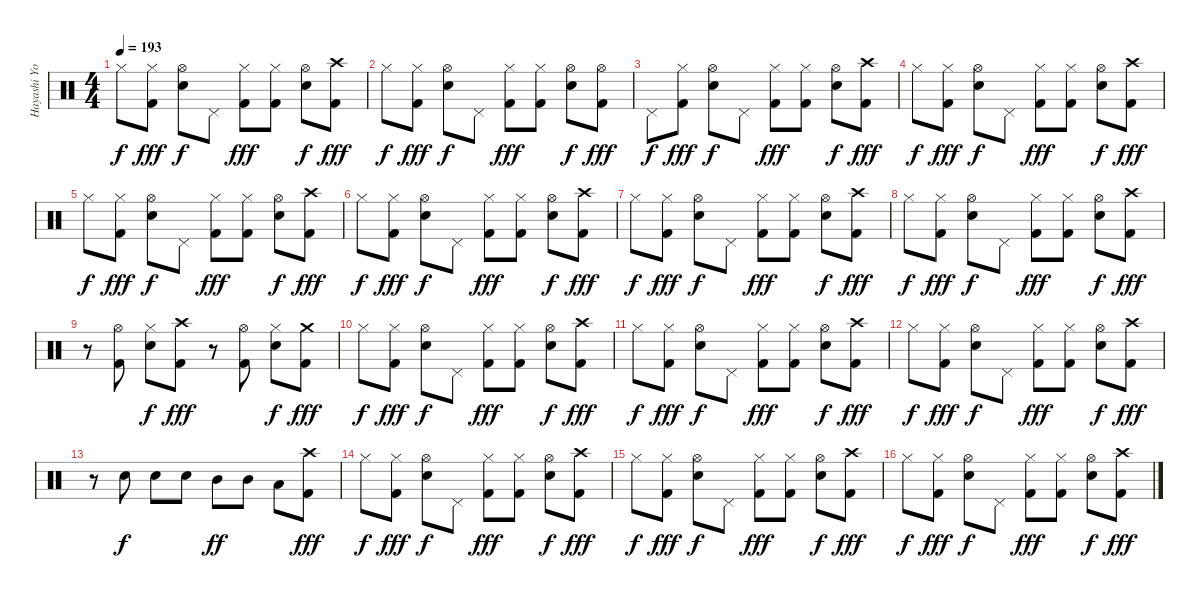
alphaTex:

\track ("Hayashi Yoshiki(Yoshiki)" "Hayashi Yo") {instrument percussion}
\staff {score}
\articulation defaults
\ts (4 4)
\tempo 193
\clef neutral
\ks c "Hi-Hat (closed)".8{dy f}
("Hi-Hat (closed)" "Kick (hit) 2").8{dy fff} ("Hi-Hat (open)" "Electric Snare (hit)").8{dy f} "Pedal Hi-Hat (hit)".8 ("Hi-Hat (closed)" "Kick (hit) 2").8{dy fff} ("Hi-Hat (closed)" "Kick (hit) 2").8 ("Hi-Hat (open)" "Electric Snare (hit)").8{dy f} ("Crash high (hit)" "Kick (hit) 2").8{dy fff} |
"Hi-Hat (closed)".8{dy f} ("Hi-Hat (closed)" "Kick (hit) 2").8{dy fff} ("Hi-Hat (open)" "Electric Snare (hit)").8{dy f} "Pedal Hi-Hat (hit)".8 ("Hi-Hat (closed)" "Kick (hit) 2").8{dy fff} ("Hi-Hat (closed)" "Kick (hit) 2").8 ("Hi-Hat (open)" "Electric Snare (hit)").8{dy f} ("Hi-Hat (open)" "Kick (hit) 2").8{dy fff} |
"Pedal Hi-Hat (hit)".8{dy f} ("Hi-Hat (closed)" "Kick (hit) 2").8{dy fff} ("Hi-Hat (open)" "Electric Snare (hit)").8{dy f} "Pedal Hi-Hat (hit)".8 ("Hi-Hat (closed)" "Kick (hit) 2").8{dy fff} ("Hi-Hat (closed)" "Kick (hit) 2").8 ("Hi-Hat (open)" "Electric Snare (hit)").8{dy f} ("Crash high (hit)" "Kick (hit) 2").8{dy fff} |
"Hi-Hat (closed)".8{dy f} ("Hi-Hat (closed)" "Kick (hit) 2").8{dy fff} ("Hi-Hat (open)" "Electric Snare (hit)").8{dy f} "Pedal Hi-Hat (hit)".8 ("Hi-Hat (closed)" "Kick (hit) 2").8{dy fff} ("Hi-Hat (closed)" "Kick (hit) 2").8 ("Hi-Hat (open)" "Electric Snare (hit)").8{dy f} ("Crash high (hit)" "Kick (hit) 2").8{dy fff} |
"Hi-Hat (closed)".8{dy f} ("Hi-Hat (closed)" "Kick (hit) 2").8{dy fff} ("Hi-Hat (open)" "Electric Snare (hit)").8{dy f} "Pedal Hi-Hat (hit)".8 ("Hi-Hat (closed)" "Kick (hit) 2").8{dy fff} ("Hi-Hat (closed)" "Kick (hit) 2").8 ("Hi-Hat (open)" "Electric Snare (hit)").8{dy f} ("Crash high (hit)" "Kick (hit) 2").8{dy fff} |
"Hi-Hat (closed)".8{dy f} ("Hi-Hat (closed)" "Kick (hit) 2").8{dy fff} ("Hi-Hat (open)" "Electric Snare (hit)").8{dy f} "Pedal Hi-Hat (hit)".8 ("Hi-Hat (closed)" "Kick (hit) 2").8{dy fff} ("Hi-Hat (closed)" "Kick (hit) 2").8 ("Hi-Hat (open)" "Electric Snare (hit)").8{dy f} ("Crash high (hit)" "Kick (hit) 2").8{dy fff} |
"Hi-Hat (closed)".8{dy f} ("Hi-Hat (closed)" "Kick (hit) 2").8{dy fff} ("Hi-Hat (open)" "Electric Snare (hit)").8{dy f} "Pedal Hi-Hat (hit)".8 ("Hi-Hat (closed)" "Kick (hit) 2").8{dy fff} ("Hi-Hat (closed)" "Kick (hit) 2").8 ("Hi-Hat (open)" "Electric Snare (hit)").8{dy f} ("Crash high (hit)" "Kick (hit) 2").8{dy fff} |
"Hi-Hat (closed)".8{dy f} ("Hi-Hat (closed)" "Kick (hit) 2").8{dy fff} ("Hi-Hat (open)" "Electric Snare (hit)").8{dy f} "Pedal Hi-Hat (hit)".8 ("Hi-Hat (closed)" "Kick (hit) 2").8{dy fff} ("Hi-Hat (closed)" "Kick (hit) 2").8 ("Hi-Hat (open)" "Electric Snare (hit)").8{dy f} ("Crash high (hit)" "Kick (hit) 2").8{dy fff} |
r.8 ("Hi-Hat (open)" "Kick (hit) 2").8 ("Hi-Hat (closed)" "Electric Snare (hit)").8{dy f} ("Crash high (hit)" "Kick (hit) 2").8{dy fff} r.8 ("Hi-Hat (open)" "Kick (hit) 2").8 ("Hi-Hat (closed)" "Electric Snare (hit)").8{dy f} ("Crash medium (hit)" "Kick (hit) 2").8{dy fff} |
"Hi-Hat (closed)".8{dy f} ("Hi-Hat (closed)" "Kick (hit) 2").8{dy fff} ("Hi-Hat (open)" "Electric Snare (hit)").8{dy f} "Pedal Hi-Hat (hit)".8 ("Hi-Hat (closed)" "Kick (hit) 2").8{dy fff} ("Hi-Hat (closed)" "Kick (hit) 2").8 ("Hi-Hat (open)" "Electric Snare (hit)").8{dy f} ("Crash high (hit)" "Kick (hit) 2").8{dy fff} |
"Hi-Hat (closed)".8{dy f} ("Hi-Hat (closed)" "Kick (hit) 2").8{dy fff} ("Hi-Hat (open)" "Electric Snare (hit)").8{dy f} "Pedal Hi-Hat (hit)".8 ("Hi-Hat (closed)" "Kick (hit) 2").8{dy fff} ("Hi-Hat (closed)" "Kick (hit) 2").8 ("Hi-Hat (open)" "Electric Snare (hit)").8{dy f} ("Crash high (hit)" "Kick (hit) 2").8{dy fff} |
"Hi-Hat (closed)".8{dy f} ("Hi-Hat (closed)" "Kick (hit) 2").8{dy fff} ("Hi-Hat (open)" "Electric Snare (hit)").8{dy f} "Pedal Hi-Hat (hit)".8 ("Hi-Hat (closed)" "Kick (hit) 2").8{dy fff} ("Hi-Hat (closed)" "Kick (hit) 2").8 ("Hi-Hat (open)" "Electric Snare (hit)").8{dy f} ("Crash high (hit)" "Kick (hit) 2").8{dy fff} |
r.8 "Electric Snare (hit)".8{dy f} "Electric Snare (hit)".8 "Electric Snare (hit)".8 "Mid Tom (hit)".8{dy ff} "Mid Tom (hit)".8 "Low Tom (hit)".8 ("Crash high (hit)" "Kick (hit) 2").8{dy fff} |
"Hi-Hat (closed)".8{dy f} ("Hi-Hat (closed)" "Kick (hit) 2").8{dy fff} ("Hi-Hat (open)" "Electric Snare (hit)").8{dy f} "Pedal Hi-Hat (hit)".8 ("Hi-Hat (closed)" "Kick (hit) 2").8{dy fff} ("Hi-Hat (closed)" "Kick (hit) 2").8 ("Hi-Hat (open)" "Electric Snare (hit)").8{dy f} ("Crash high (hit)" "Kick (hit) 2").8{dy fff} |
"Hi-Hat (closed)".8{dy f} ("Hi-Hat (closed)" "Kick (hit) 2").8{dy fff} ("Hi-Hat (open)" "Electric Snare (hit)").8{dy f} "Pedal Hi-Hat (hit)".8 ("Hi-Hat (closed)" "Kick (hit) 2").8{dy fff} ("Hi-Hat (closed)" "Kick (hit) 2").8 ("Hi-Hat (open)" "Electric Snare (hit)").8{dy f} ("Crash high (hit)" "Kick (hit) 2").8{dy fff} |
"Hi-Hat (closed)".8{dy f} ("Hi-Hat (closed)" "Kick (hit) 2").8{dy fff} ("Hi-Hat (open)" "Electric Snare (hit)").8{dy f} "Pedal Hi-Hat (hit)".8 ("Hi-Hat (closed)" "Kick (hit) 2").8{dy fff} ("Hi-Hat (closed)" "Kick (hit) 2").8 ("Hi-Hat (open)" "Electric Snare (hit)").8{dy f} ("Crash high (hit)" "Kick (hit) 2").8{dy fff}
